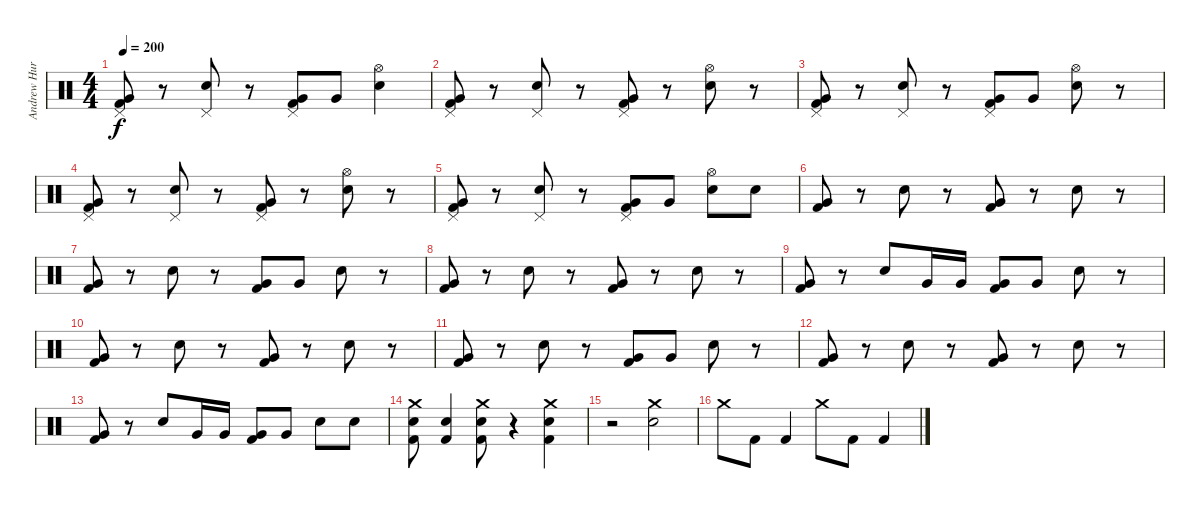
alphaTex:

\track ("Andrew Hurley (Drums)" "Andrew Hur") {instrument percussion}
\staff {score}
\articulation defaults
\ts (4 4)
\tempo 200
\clef neutral
\ks c
("Pedal Hi-Hat (hit)" "Very Low Tom (hit)" "Kick (hit) 2").8{dy f} r.8 ("Pedal Hi-Hat (hit)" "Electric Snare (hit)").8 r.8 ("Pedal Hi-Hat (hit)" "Very Low Tom (hit)" "Kick (hit) 2").8 "Very Low Tom (hit)".8 ("Hi-Hat (open)" "Electric Snare (hit)").4 |
("Pedal Hi-Hat (hit)" "Very Low Tom (hit)" "Kick (hit) 2").8 r.8 ("Pedal Hi-Hat (hit)" "Electric Snare (hit)").8 r.8 ("Pedal Hi-Hat (hit)" "Very Low Tom (hit)" "Kick (hit) 2").8 r.8 ("Hi-Hat (open)" "Electric Snare (hit)").8 r.8 |
("Pedal Hi-Hat (hit)" "Very Low Tom (hit)" "Kick (hit) 2").8 r.8 ("Pedal Hi-Hat (hit)" "Electric Snare (hit)").8 r.8 ("Pedal Hi-Hat (hit)" "Very Low Tom (hit)" "Kick (hit) 2").8 "Very Low Tom (hit)".8 ("Hi-Hat (open)" "Electric Snare (hit)").8 r.8 |
("Pedal Hi-Hat (hit)" "Very Low Tom (hit)" "Kick (hit) 2").8 r.8 ("Pedal Hi-Hat (hit)" "Electric Snare (hit)").8 r.8 ("Pedal Hi-Hat (hit)" "Very Low Tom (hit)" "Kick (hit) 2").8 r.8 ("Hi-Hat (open)" "Electric Snare (hit)").8 r.8 |
("Pedal Hi-Hat (hit)" "Very Low Tom (hit)" "Kick (hit) 2").8 r.8 ("Pedal Hi-Hat (hit)" "Electric Snare (hit)").8 r.8 ("Pedal Hi-Hat (hit)" "Very Low Tom (hit)" "Kick (hit) 2").8 "Very Low Tom (hit)".8 ("Hi-Hat (open)" "Electric Snare (hit)").8 "Electric Snare (hit)".8 |
("Very Low Tom (hit)" "Kick (hit) 2").8 r.8 "Electric Snare (hit)".8 r.8 ("Very Low Tom (hit)" "Kick (hit) 2").8 r.8 "Electric Snare (hit)".8 r.8 |
("Very Low Tom (hit)" "Kick (hit) 2").8 r.8 "Electric Snare (hit)".8 r.8 ("Very Low Tom (hit)" "Kick (hit) 2").8 "Very Low Tom (hit)".8 "Electric Snare (hit)".8 r.8 |
("Very Low Tom (hit)" "Kick (hit) 2").8 r.8 "Electric Snare (hit)".8 r.8 ("Very Low Tom (hit)" "Kick (hit) 2").8 r.8 "Electric Snare (hit)".8 r.8 |
("Very Low Tom (hit)" "Kick (hit) 2").8 r.8 "Electric Snare (hit)".8 "Very Low Tom (hit)".16 "Very Low Tom (hit)".16 ("Very Low Tom (hit)" "Kick (hit) 2").8 "Very Low Tom (hit)".8 "Electric Snare (hit)".8 r.8 |
("Very Low Tom (hit)" "Kick (hit) 2").8 r.8 "Electric Snare (hit)".8 r.8 ("Very Low Tom (hit)" "Kick (hit) 2").8 r.8 "Electric Snare (hit)".8 r.8 |
("Very Low Tom (hit)" "Kick (hit) 2").8 r.8 "Electric Snare (hit)".8 r.8 ("Very Low Tom (hit)" "Kick (hit) 2").8 "Very Low Tom (hit)".8 "Electric Snare (hit)".8 r.8 |
("Very Low Tom (hit)" "Kick (hit) 2").8 r.8 "Electric Snare (hit)".8 r.8 ("Very Low Tom (hit)" "Kick (hit) 2").8 r.8 "Electric Snare (hit)".8 r.8 |
("Very Low Tom (hit)" "Kick (hit) 2").8 r.8 "Electric Snare (hit)".8 "Very Low Tom (hit)".16 "Very Low Tom (hit)".16 ("Very Low Tom (hit)" "Kick (hit) 2").8 "Very Low Tom (hit)".8 "Electric Snare (hit)".8 "Electric Snare (hit)".8 |
("Crash medium (hit)" "Electric Snare (hit)" "Kick (hit) 2").8 ("Electric Snare (hit)" "Kick (hit) 2").4 ("Crash medium (hit)" "Electric Snare (hit)" "Kick (hit) 2").8 r.4 ("Crash medium (hit)" "Electric Snare (hit)" "Kick (hit) 2").4 |
r.2 ("Crash medium (hit)" "Electric Snare (hit)").2 |
"Crash medium (hit)".8 "Kick (hit) 2".8 "Kick (hit) 2".4 "Crash medium (hit)".8 "Kick (hit) 2".8 "Kick (hit) 2".4
